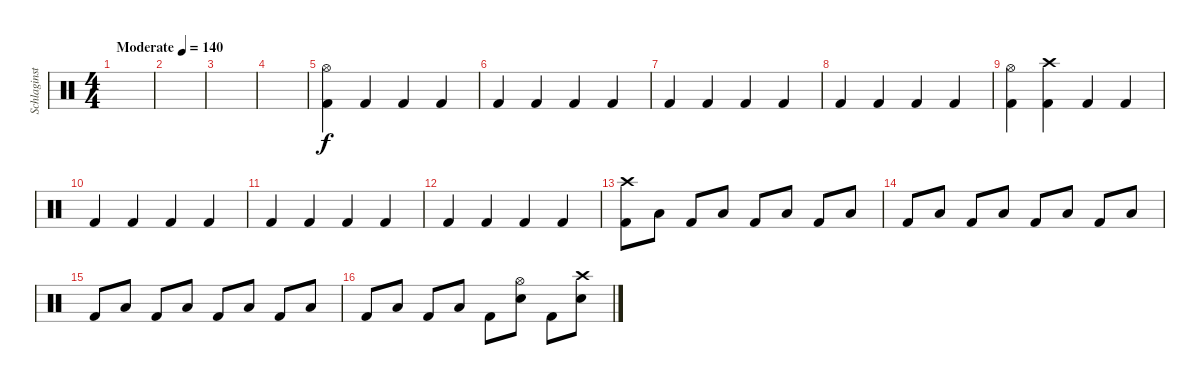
\track ("Schlaginstrumente - Auswahl" "Schlaginst") {instrument percussion}
\staff {score}
\articulation defaults
\ts (4 4)
\tempo (140 "Moderate")
\clef neutral
\ks c
|
|
|
|
("Hi-Hat (open)" "Kick (hit) 2").4 "Kick (hit) 2".4 "Kick (hit) 2".4 "Kick (hit) 2".4 |
"Kick (hit) 2".4 "Kick (hit) 2".4 "Kick (hit) 2".4 "Kick (hit) 2".4 |
"Kick (hit) 2".4 "Kick (hit) 2".4 "Kick (hit) 2".4 "Kick (hit) 2".4 |
"Kick (hit) 2".4 "Kick (hit) 2".4 "Kick (hit) 2".4 "Kick (hit) 2".4 |
("Hi-Hat (open)" "Kick (hit) 2").4 ("Crash high (hit)" "Kick (hit) 2").4 "Kick (hit) 2".4 "Kick (hit) 2".4 |
"Kick (hit) 2".4 "Kick (hit) 2".4 "Kick (hit) 2".4 "Kick (hit) 2".4 |
"Kick (hit) 2".4 "Kick (hit) 2".4 "Kick (hit) 2".4 "Kick (hit) 2".4 |
"Kick (hit) 2".4 "Kick (hit) 2".4 "Kick (hit) 2".4 "Kick (hit) 2".4 |
("Crash high (hit)" "Kick (hit) 2").8 "Low Tom (hit)".8 "Kick (hit) 2".8 "Low Tom (hit)".8 "Kick (hit) 2".8 "Low Tom (hit)".8 "Kick (hit) 2".8 "Low Tom (hit)".8 |
"Kick (hit) 2".8 "Low Tom (hit)".8 "Kick (hit) 2".8 "Low Tom (hit)".8 "Kick (hit) 2".8 "Low Tom (hit)".8 "Kick (hit) 2".8 "Low Tom (hit)".8 |
"Kick (hit) 2".8 "Low Tom (hit)".8 "Kick (hit) 2".8 "Low Tom (hit)".8 "Kick (hit) 2".8 "Low Tom (hit)".8 "Kick (hit) 2".8 "Low Tom (hit)".8 |
"Kick (hit) 2".8 "Low Tom (hit)".8 "Kick (hit) 2".8 "Low Tom (hit)".8 "Kick (hit) 2".8 ("Hi-Hat (open)" "Snare (hit) 2").8 "Kick (hit) 2".8 ("Crash high (hit)" "Snare (hit) 2").8
